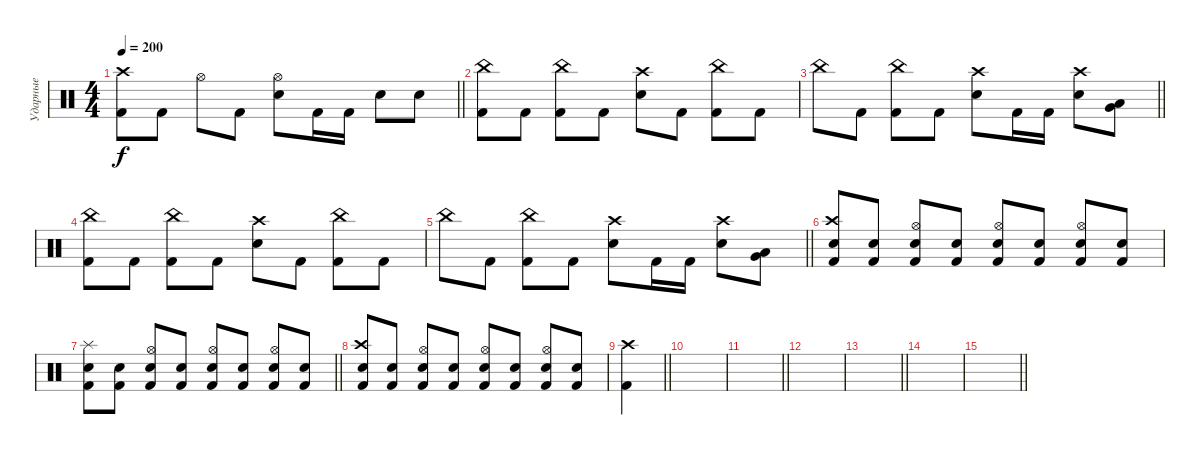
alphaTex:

\track ("Ударные" "Ударные") {instrument percussion}
\staff {score}
\articulation defaults
\ts (4 4)
\tempo 200
\clef neutral
\barLineRight lightlight
\ks c
("Kick (hit) 2" "Crash high (hit)").8{dy f} "Kick (hit) 2".8 "Hi-Hat (open)".8 "Kick (hit) 2".8 ("Hi-Hat (open)" "Electric Snare (hit)").8 "Kick (hit) 2".16 "Kick (hit) 2".16 "Electric Snare (hit)".8 "Electric Snare (hit)".8 |
("Kick (hit) 2" "China (hit)").8 "Kick (hit) 2".8 ("Kick (hit) 2" "China (hit)").8 "Kick (hit) 2".8 ("Electric Snare (hit)" "Crash high (hit)").8 "Kick (hit) 2".8 ("Kick (hit) 2" "China (hit)").8 "Kick (hit) 2".8 |
\barLineRight lightlight "China (hit)".8 "Kick (hit) 2".8
("Kick (hit) 2" "China (hit)").8 "Kick (hit) 2".8 ("Crash high (hit)" "Electric Snare (hit)").8 "Kick (hit) 2".16 "Kick (hit) 2".16 ("Crash high (hit)" "Electric Snare (hit)").8 ("Low Floor Tom (hit)" "Very Low Tom (hit)").8 |
("Kick (hit) 2" "China (hit)").8 "Kick (hit) 2".8 ("Kick (hit) 2" "China (hit)").8 "Kick (hit) 2".8 ("Electric Snare (hit)" "Crash high (hit)").8 "Kick (hit) 2".8 ("Kick (hit) 2" "China (hit)").8 "Kick (hit) 2".8 |
\barLineRight lightlight "China (hit)".8 "Kick (hit) 2".8
("Kick (hit) 2" "China (hit)").8 "Kick (hit) 2".8 ("Crash high (hit)" "Electric Snare (hit)").8 "Kick (hit) 2".16 "Kick (hit) 2".16 ("Crash high (hit)" "Electric Snare (hit)").8 ("Low Floor Tom (hit)" "Very Low Tom (hit)").8 |
("Kick (hit) 2" "Electric Snare (hit)" "Crash high (hit)").8 ("Kick (hit) 2" "Electric Snare (hit)").8 ("Kick (hit) 2" "Electric Snare (hit)" "Hi-Hat (open)").8 ("Kick (hit) 2" "Electric Snare (hit)").8 ("Kick (hit) 2" "Electric Snare (hit)" "Hi-Hat (open)").8 ("Kick (hit) 2" "Electric Snare (hit)").8 ("Kick (hit) 2" "Electric Snare (hit)" "Hi-Hat (open)").8 ("Kick (hit) 2" "Electric Snare (hit)").8 |
\barLineRight lightlight
("Kick (hit) 2" "Electric Snare (hit)" "Splash (hit)").8 ("Kick (hit) 2" "Electric Snare (hit)").8 ("Kick (hit) 2" "Electric Snare (hit)" "Hi-Hat (open)").8 ("Kick (hit) 2" "Electric Snare (hit)").8 ("Kick (hit) 2" "Electric Snare (hit)" "Hi-Hat (open)").8 ("Kick (hit) 2" "Electric Snare (hit)").8 ("Kick (hit) 2" "Electric Snare (hit)" "Hi-Hat (open)").8 ("Kick (hit) 2" "Electric Snare (hit)").8 |
("Kick (hit) 2" "Electric Snare (hit)" "Crash high (hit)").8 ("Kick (hit) 2" "Electric Snare (hit)").8 ("Kick (hit) 2" "Electric Snare (hit)" "Hi-Hat (open)").8 ("Kick (hit) 2" "Electric Snare (hit)").8 ("Kick (hit) 2" "Electric Snare (hit)" "Hi-Hat (open)").8 ("Kick (hit) 2" "Electric Snare (hit)").8 ("Kick (hit) 2" "Electric Snare (hit)" "Hi-Hat (open)").8 ("Kick (hit) 2" "Electric Snare (hit)").8 |
\barLineRight lightlight
("Kick (hit) 2" "Crash high (hit)").4 |
|
\barLineRight lightlight
|
|
\barLineRight lightlight
|
|
\barLineRight lightlight
